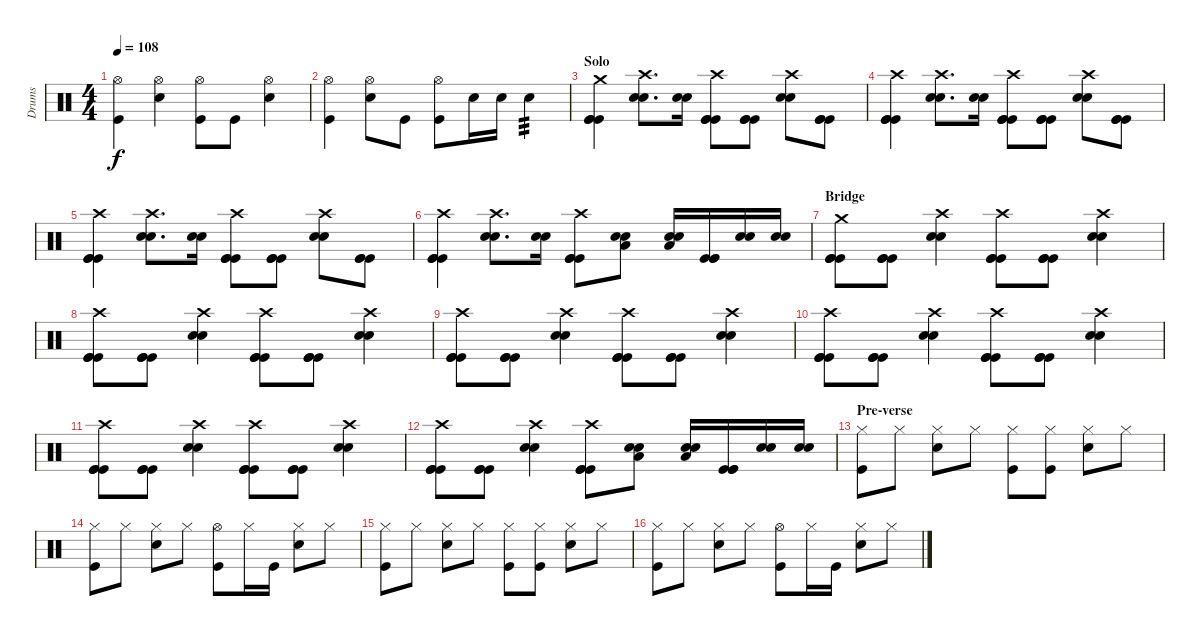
\track ("Drums" "Drums") {instrument percussion}
\staff {score}
\articulation defaults
\ts (4 4)
\tempo 108
\clef neutral
\ks c
("Hi-Hat (open)" "Kick (hit)").4{dy f} ("Hi-Hat (open)" "Snare (hit) 2").4 ("Hi-Hat (open)" "Kick (hit)").8 "Kick (hit)".8 ("Hi-Hat (open)" "Snare (hit) 2").4 |
("Hi-Hat (open)" "Kick (hit)").4 ("Hi-Hat (open)" "Snare (hit) 2").8 "Kick (hit)".8 ("Hi-Hat (open)" "Kick (hit)").8 "Snare (hit) 2".16 "Snare (hit) 2".16 "Snare (hit) 2".4{tp 3} |
\section ("" "Solo")
("Crash medium (hit)" "Kick (hit)" "Kick (hit)" "Kick (hit)").4 ("Crash high (hit)" "Snare (hit) 2" "Snare (hit) 2").8{d} ("Snare (hit) 2" "Snare (hit) 2").16 ("Crash high (hit)" "Kick (hit)" "Kick (hit)" "Kick (hit)").8 ("Kick (hit)" "Kick (hit)" "Kick (hit)").8 ("Crash high (hit)" "Snare (hit) 2" "Snare (hit) 2").8 ("Kick (hit)" "Kick (hit)" "Kick (hit)").8 |
("Crash high (hit)" "Kick (hit)" "Kick (hit)" "Kick (hit)").4 ("Crash high (hit)" "Snare (hit) 2" "Snare (hit) 2").8{d} ("Snare (hit) 2" "Snare (hit) 2").16 ("Crash high (hit)" "Kick (hit)" "Kick (hit)" "Kick (hit)").8 ("Kick (hit)" "Kick (hit)" "Kick (hit)").8 ("Crash high (hit)" "Snare (hit) 2" "Snare (hit) 2").8 ("Kick (hit)" "Kick (hit)" "Kick (hit)").8 |
("Crash high (hit)" "Kick (hit)" "Kick (hit)" "Kick (hit)").4 ("Crash high (hit)" "Snare (hit) 2" "Snare (hit) 2").8{d} ("Snare (hit) 2" "Snare (hit) 2").16 ("Crash high (hit)" "Kick (hit)" "Kick (hit)" "Kick (hit)").8 ("Kick (hit)" "Kick (hit)" "Kick (hit)").8 ("Crash high (hit)" "Snare (hit) 2" "Snare (hit) 2").8 ("Kick (hit)" "Kick (hit)" "Kick (hit)").8 |
("Crash high (hit)" "Kick (hit)" "Kick (hit)" "Kick (hit)").4 ("Crash high (hit)" "Snare (hit) 2" "Snare (hit) 2").8{d} ("Snare (hit) 2" "Snare (hit) 2").16 ("Crash high (hit)" "Kick (hit)" "Kick (hit)" "Kick (hit)").8 ("Low Tom (hit)" "Snare (hit) 2" "Snare (hit) 2").8 ("Low Tom (hit)" "Snare (hit) 2" "Snare (hit) 2").16 ("Kick (hit)" "Kick (hit)" "Kick (hit)").16 ("Snare (hit) 2" "Snare (hit) 2").16 ("Snare (hit) 2" "Snare (hit) 2").16 |
\section ("" "Bridge")
("Crash medium (hit)" "Kick (hit)" "Kick (hit)" "Kick (hit)").8 ("Kick (hit)" "Kick (hit)" "Kick (hit)").8 ("Crash high (hit)" "Snare (hit) 2" "Snare (hit) 2").4 ("Crash high (hit)" "Kick (hit)" "Kick (hit)" "Kick (hit)").8 ("Kick (hit)" "Kick (hit)" "Kick (hit)").8 ("Crash high (hit)" "Snare (hit) 2" "Snare (hit) 2").4 |
("Crash high (hit)" "Kick (hit)" "Kick (hit)" "Kick (hit)").8 ("Kick (hit)" "Kick (hit)" "Kick (hit)").8 ("Crash high (hit)" "Snare (hit) 2" "Snare (hit) 2").4 ("Crash high (hit)" "Kick (hit)" "Kick (hit)" "Kick (hit)").8 ("Kick (hit)" "Kick (hit)" "Kick (hit)").8 ("Crash high (hit)" "Snare (hit) 2" "Snare (hit) 2").4 |
("Crash high (hit)" "Kick (hit)" "Kick (hit)" "Kick (hit)").8 ("Kick (hit)" "Kick (hit)" "Kick (hit)").8 ("Crash high (hit)" "Snare (hit) 2" "Snare (hit) 2").4 ("Crash high (hit)" "Kick (hit)" "Kick (hit)" "Kick (hit)").8 ("Kick (hit)" "Kick (hit)" "Kick (hit)").8 ("Crash high (hit)" "Snare (hit) 2" "Snare (hit) 2").4 |
("Crash high (hit)" "Kick (hit)" "Kick (hit)" "Kick (hit)").8 ("Kick (hit)" "Kick (hit)" "Kick (hit)").8 ("Crash high (hit)" "Snare (hit) 2" "Snare (hit) 2").4 ("Crash high (hit)" "Kick (hit)" "Kick (hit)" "Kick (hit)").8 ("Kick (hit)" "Kick (hit)" "Kick (hit)").8 ("Crash high (hit)" "Snare (hit) 2" "Snare (hit) 2").4 |
("Crash high (hit)" "Kick (hit)" "Kick (hit)" "Kick (hit)").8 ("Kick (hit)" "Kick (hit)" "Kick (hit)").8 ("Crash high (hit)" "Snare (hit) 2" "Snare (hit) 2").4 ("Crash high (hit)" "Kick (hit)" "Kick (hit)" "Kick (hit)").8 ("Kick (hit)" "Kick (hit)" "Kick (hit)").8 ("Crash high (hit)" "Snare (hit) 2" "Snare (hit) 2").4 |
("Crash high (hit)" "Kick (hit)" "Kick (hit)" "Kick (hit)").8 ("Kick (hit)" "Kick (hit)" "Kick (hit)").8 ("Crash high (hit)" "Snare (hit) 2" "Snare (hit) 2").4 ("Crash high (hit)" "Kick (hit)" "Kick (hit)" "Kick (hit)").8 ("Low Tom (hit)" "Snare (hit) 2" "Snare (hit) 2").8 ("Low Tom (hit)" "Snare (hit) 2" "Snare (hit) 2").16 ("Kick (hit)" "Kick (hit)" "Kick (hit)").16 ("Snare (hit) 2" "Snare (hit) 2").16 ("Snare (hit) 2" "Snare (hit) 2").16 |
\section ("" "Pre-verse")
("Hi-Hat (closed)" "Kick (hit)").8 "Hi-Hat (closed)".8 ("Hi-Hat (closed)" "Snare (hit) 2").8 "Hi-Hat (closed)".8 ("Hi-Hat (closed)" "Kick (hit)").8 ("Hi-Hat (closed)" "Kick (hit)").8 ("Hi-Hat (closed)" "Snare (hit) 2").8 "Hi-Hat (closed)".8 |
("Hi-Hat (closed)" "Kick (hit)").8 "Hi-Hat (closed)".8 ("Hi-Hat (closed)" "Snare (hit) 2").8 "Hi-Hat (closed)".8 ("Hi-Hat (open)" "Kick (hit)").8 "Hi-Hat (closed)".16 "Kick (hit)".16 ("Hi-Hat (closed)" "Snare (hit) 2").8 "Hi-Hat (closed)".8 |
("Hi-Hat (closed)" "Kick (hit)").8 "Hi-Hat (closed)".8 ("Hi-Hat (closed)" "Snare (hit) 2").8 "Hi-Hat (closed)".8 ("Hi-Hat (closed)" "Kick (hit)").8 ("Hi-Hat (closed)" "Kick (hit)").8 ("Hi-Hat (closed)" "Snare (hit) 2").8 "Hi-Hat (closed)".8 |
("Hi-Hat (closed)" "Kick (hit)").8 "Hi-Hat (closed)".8 ("Hi-Hat (closed)" "Snare (hit) 2").8 "Hi-Hat (closed)".8 ("Hi-Hat (open)" "Kick (hit)").8 "Hi-Hat (closed)".16 "Kick (hit)".16 ("Hi-Hat (closed)" "Snare (hit) 2").8 "Hi-Hat (closed)".8
